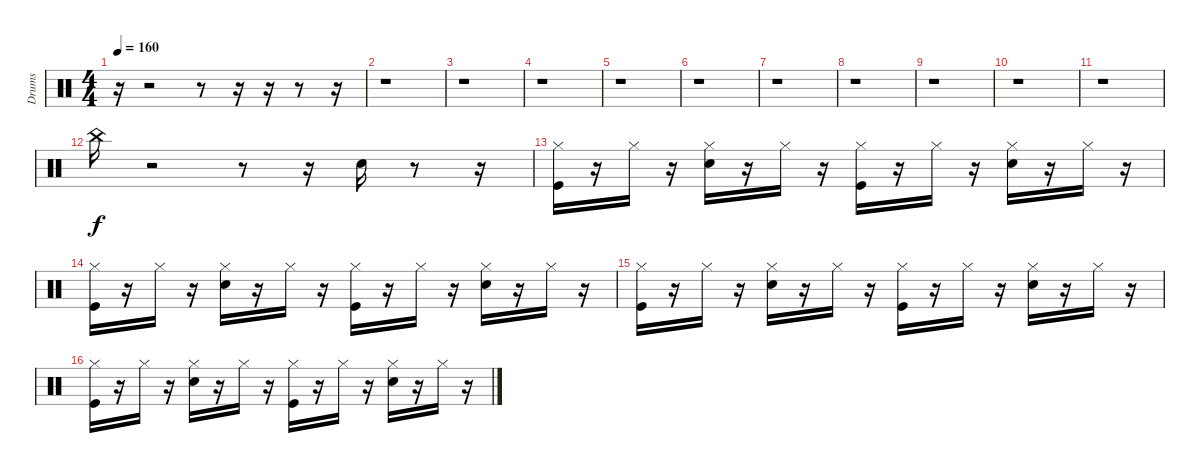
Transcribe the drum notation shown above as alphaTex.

\track ("Drums               " "Drums     ") {instrument percussion}
\staff {score}
\articulation defaults
\ts (4 4)
\tempo 160
\clef neutral
\ks c
r.16{dy f} r.2 r.8 r.16 r.16 r.8 r.16 |
r.1 |
r.1 |
r.1 |
r.1 |
r.1 |
r.1 |
r.1 |
r.1 |
r.1 |
r.1 |
"China (choke)".16 r.2 r.8 r.16 "Snare (hit)".16 r.8 r.16 |
("Kick (hit)" "Hi-Hat (closed)").16 r.16 "Hi-Hat (closed)".16 r.16 ("Snare (hit) 2" "Hi-Hat (closed)").16 r.16 "Hi-Hat (closed)".16 r.16 ("Kick (hit)" "Hi-Hat (closed)").16 r.16 "Hi-Hat (closed)".16 r.16 ("Snare (hit) 2" "Hi-Hat (closed)").16 r.16 "Hi-Hat (closed)".16 r.16 |
("Kick (hit)" "Hi-Hat (closed)").16 r.16 "Hi-Hat (closed)".16 r.16 ("Snare (hit) 2" "Hi-Hat (closed)").16 r.16 "Hi-Hat (closed)".16 r.16 ("Kick (hit)" "Hi-Hat (closed)").16 r.16 "Hi-Hat (closed)".16 r.16 ("Snare (hit) 2" "Hi-Hat (closed)").16 r.16 "Hi-Hat (closed)".16 r.16 |
("Kick (hit)" "Hi-Hat (closed)").16 r.16 "Hi-Hat (closed)".16 r.16 ("Snare (hit) 2" "Hi-Hat (closed)").16 r.16 "Hi-Hat (closed)".16 r.16 ("Kick (hit)" "Hi-Hat (closed)").16 r.16 "Hi-Hat (closed)".16 r.16 ("Snare (hit) 2" "Hi-Hat (closed)").16 r.16 "Hi-Hat (closed)".16 r.16 |
("Kick (hit)" "Hi-Hat (closed)").16 r.16 "Hi-Hat (closed)".16 r.16 ("Snare (hit) 2" "Hi-Hat (closed)").16 r.16 "Hi-Hat (closed)".16 r.16 ("Kick (hit)" "Hi-Hat (closed)").16 r.16 "Hi-Hat (closed)".16 r.16 ("Snare (hit) 2" "Hi-Hat (closed)").16 r.16 "Hi-Hat (closed)".16 r.16
